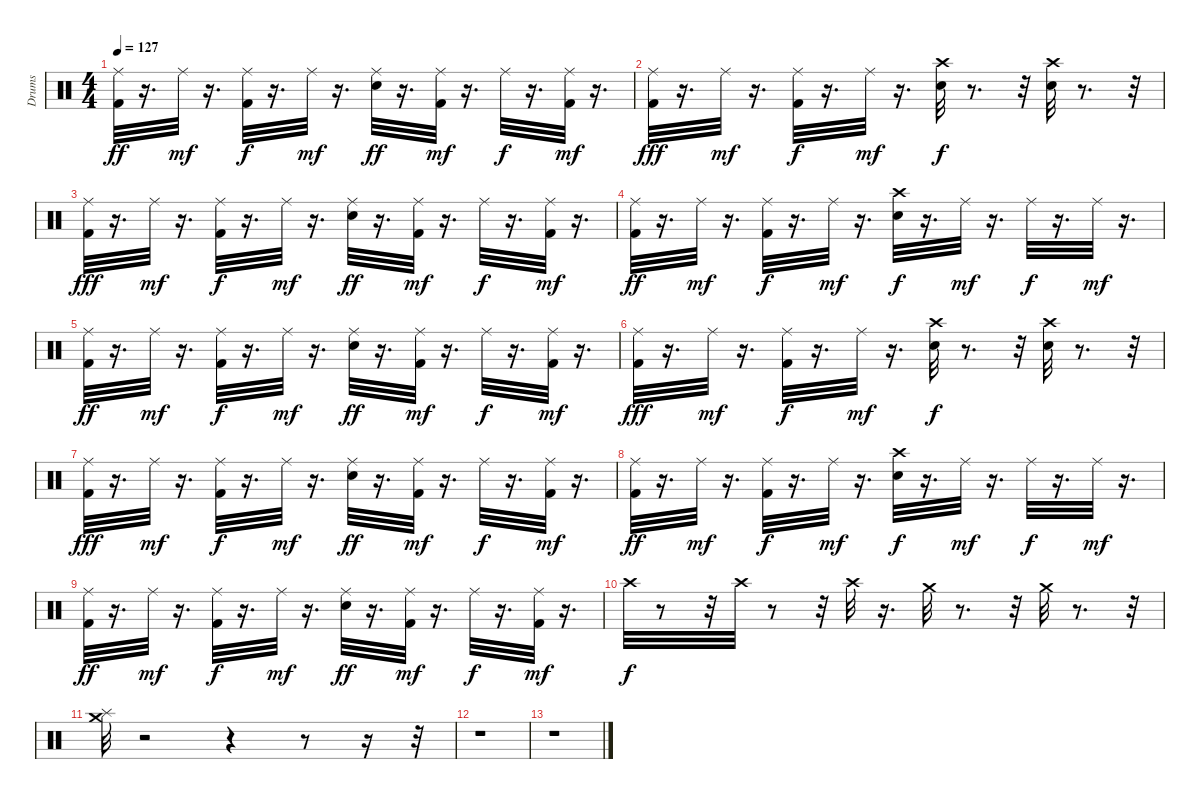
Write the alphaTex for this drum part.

\track ("Drums" "Drums") {instrument percussion}
\staff {score}
\articulation defaults
\ts (4 4)
\tempo 127
\clef neutral
\ks c
("Ride (middle)" "Kick (hit) 2").32{dy ff} r.16{d} "Ride (middle)".32{dy mf} r.16{d} ("Ride (middle)" "Kick (hit) 2").32{dy f} r.16{d} "Ride (middle)".32{dy mf} r.16{d} ("Snare (hit) 2" "Ride (middle)").32{dy ff} r.16{d} ("Ride (middle)" "Kick (hit) 2").32{dy mf} r.16{d} "Ride (middle)".32{dy f} r.16{d} ("Ride (middle)" "Kick (hit) 2").32{dy mf} r.16{d} |
("Ride (middle)" "Kick (hit) 2").32{dy fff} r.16{d} "Ride (middle)".32{dy mf} r.16{d} ("Ride (middle)" "Kick (hit) 2").32{dy f} r.16{d} "Ride (middle)".32{dy mf} r.16{d} ("Crash high (hit)" "Snare (hit) 2").32{dy f} r.8{d} r.32 ("Crash high (hit)" "Snare (hit) 2").32 r.8{d} r.32 |
("Ride (middle)" "Kick (hit) 2").32{dy fff} r.16{d} "Ride (middle)".32{dy mf} r.16{d} ("Ride (middle)" "Kick (hit) 2").32{dy f} r.16{d} "Ride (middle)".32{dy mf} r.16{d} ("Snare (hit) 2" "Ride (middle)").32{dy ff} r.16{d} ("Ride (middle)" "Kick (hit) 2").32{dy mf} r.16{d} "Ride (middle)".32{dy f} r.16{d} ("Ride (middle)" "Kick (hit) 2").32{dy mf} r.16{d} |
("Ride (middle)" "Kick (hit) 2").32{dy ff} r.16{d} "Ride (middle)".32{dy mf} r.16{d} ("Ride (middle)" "Kick (hit) 2").32{dy f} r.16{d} "Ride (middle)".32{dy mf} r.16{d} ("Crash high (hit)" "Snare (hit) 2").32{dy f} r.16{d} "Ride (middle)".32{dy mf} r.16{d} "Ride (middle)".32{dy f} r.16{d} "Ride (middle)".32{dy mf} r.16{d} |
("Ride (middle)" "Kick (hit) 2").32{dy ff} r.16{d} "Ride (middle)".32{dy mf} r.16{d} ("Ride (middle)" "Kick (hit) 2").32{dy f} r.16{d} "Ride (middle)".32{dy mf} r.16{d} ("Snare (hit) 2" "Ride (middle)").32{dy ff} r.16{d} ("Ride (middle)" "Kick (hit) 2").32{dy mf} r.16{d} "Ride (middle)".32{dy f} r.16{d} ("Ride (middle)" "Kick (hit) 2").32{dy mf} r.16{d} |
("Ride (middle)" "Kick (hit) 2").32{dy fff} r.16{d} "Ride (middle)".32{dy mf} r.16{d} ("Ride (middle)" "Kick (hit) 2").32{dy f} r.16{d} "Ride (middle)".32{dy mf} r.16{d} ("Crash high (hit)" "Snare (hit) 2").32{dy f} r.8{d} r.32 ("Crash high (hit)" "Snare (hit) 2").32 r.8{d} r.32 |
("Ride (middle)" "Kick (hit) 2").32{dy fff} r.16{d} "Ride (middle)".32{dy mf} r.16{d} ("Ride (middle)" "Kick (hit) 2").32{dy f} r.16{d} "Ride (middle)".32{dy mf} r.16{d} ("Snare (hit) 2" "Ride (middle)").32{dy ff} r.16{d} ("Ride (middle)" "Kick (hit) 2").32{dy mf} r.16{d} "Ride (middle)".32{dy f} r.16{d} ("Ride (middle)" "Kick (hit) 2").32{dy mf} r.16{d} |
("Ride (middle)" "Kick (hit) 2").32{dy ff} r.16{d} "Ride (middle)".32{dy mf} r.16{d} ("Ride (middle)" "Kick (hit) 2").32{dy f} r.16{d} "Ride (middle)".32{dy mf} r.16{d} ("Crash high (hit)" "Snare (hit) 2").32{dy f} r.16{d} "Ride (middle)".32{dy mf} r.16{d} "Ride (middle)".32{dy f} r.16{d} "Ride (middle)".32{dy mf} r.16{d} |
("Ride (middle)" "Kick (hit) 2").32{dy ff} r.16{d} "Ride (middle)".32{dy mf} r.16{d} ("Ride (middle)" "Kick (hit) 2").32{dy f} r.16{d} "Ride (middle)".32{dy mf} r.16{d} ("Snare (hit) 2" "Ride (middle)").32{dy ff} r.16{d} ("Ride (middle)" "Kick (hit) 2").32{dy mf} r.16{d} "Ride (middle)".32{dy f} r.16{d} ("Ride (middle)" "Kick (hit) 2").32{dy mf} r.16{d} |
"Crash high (hit)".32{dy f} r.8 r.32 "Crash high (hit)".32 r.8 r.32 "Crash high (hit)".32 r.16{d} "Crash medium (hit)".32 r.8{d} r.32 "Crash medium (hit)".32 r.8{d} r.32 |
("Splash (hit)" "Crash medium (hit)").32 r.2 r.4 r.8 r.16 r.32 |
r.1 |
r.1
